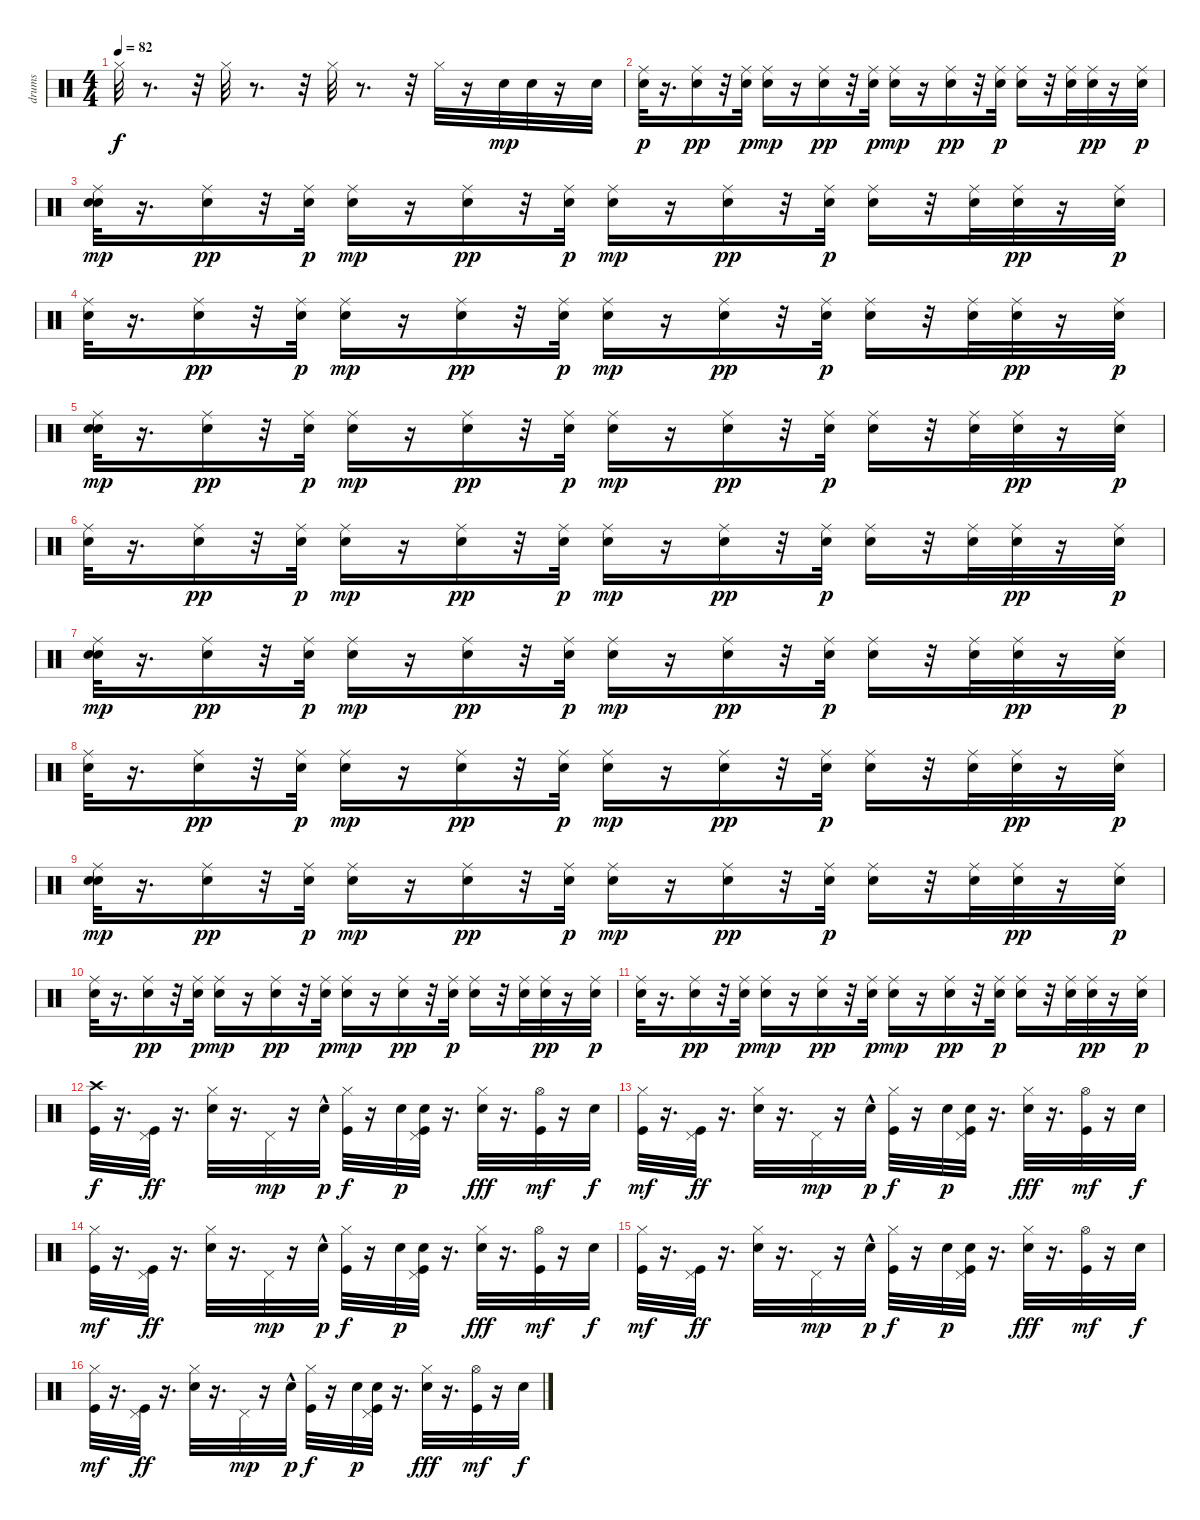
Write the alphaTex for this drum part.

\track ("drums" "drums") {instrument percussion}
\staff {score}
\articulation defaults
\ts (4 4)
\tempo 82
\clef neutral
\ks c "Hi-Hat (closed)".32{dy f}
r.8{d} r.32 "Hi-Hat (closed)".32 r.8{d} r.32 "Hi-Hat (closed)".32 r.8{d} r.32 "Hi-Hat (closed)".32 r.16 "Electric Snare (hit)".32{dy mp} "Electric Snare (hit)".32 r.16 "Electric Snare (hit)".32 |
("Ride (middle)" "Electric Snare (hit)").32{dy p} r.16{d} ("Ride (middle)" "Electric Snare (hit)").16{dy pp} r.32 ("Ride (middle)" "Electric Snare (hit)").32{dy p} ("Ride (middle)" "Electric Snare (hit)").16{dy mp} r.16 ("Ride (middle)" "Electric Snare (hit)").16{dy pp} r.32 ("Ride (middle)" "Electric Snare (hit)").32{dy p} ("Ride (middle)" "Electric Snare (hit)").16{dy mp} r.16 ("Ride (middle)" "Electric Snare (hit)").16{dy pp} r.32 ("Ride (middle)" "Electric Snare (hit)").32{dy p} ("Ride (middle)" "Electric Snare (hit)").16 r.32 ("Ride (middle)" "Electric Snare (hit)").32 ("Ride (middle)" "Electric Snare (hit)").32{dy pp} r.16 ("Ride (middle)" "Electric Snare (hit)").32{dy p} |
("Ride (middle)" "Electric Snare (hit)" "Electric Snare (hit)").32{dy mp} r.16{d} ("Ride (middle)" "Electric Snare (hit)").16{dy pp} r.32 ("Ride (middle)" "Electric Snare (hit)").32{dy p} ("Ride (middle)" "Electric Snare (hit)").16{dy mp} r.16 ("Ride (middle)" "Electric Snare (hit)").16{dy pp} r.32 ("Ride (middle)" "Electric Snare (hit)").32{dy p} ("Ride (middle)" "Electric Snare (hit)").16{dy mp} r.16 ("Ride (middle)" "Electric Snare (hit)").16{dy pp} r.32 ("Ride (middle)" "Electric Snare (hit)").32{dy p} ("Ride (middle)" "Electric Snare (hit)").16 r.32 ("Ride (middle)" "Electric Snare (hit)").32 ("Ride (middle)" "Electric Snare (hit)").32{dy pp} r.16 ("Ride (middle)" "Electric Snare (hit)").32{dy p} |
("Ride (middle)" "Electric Snare (hit)").32 r.16{d} ("Ride (middle)" "Electric Snare (hit)").16{dy pp} r.32 ("Ride (middle)" "Electric Snare (hit)").32{dy p} ("Ride (middle)" "Electric Snare (hit)").16{dy mp} r.16 ("Ride (middle)" "Electric Snare (hit)").16{dy pp} r.32 ("Ride (middle)" "Electric Snare (hit)").32{dy p} ("Ride (middle)" "Electric Snare (hit)").16{dy mp} r.16 ("Ride (middle)" "Electric Snare (hit)").16{dy pp} r.32 ("Ride (middle)" "Electric Snare (hit)").32{dy p} ("Ride (middle)" "Electric Snare (hit)").16 r.32 ("Ride (middle)" "Electric Snare (hit)").32 ("Ride (middle)" "Electric Snare (hit)").32{dy pp} r.16 ("Ride (middle)" "Electric Snare (hit)").32{dy p} |
("Ride (middle)" "Electric Snare (hit)" "Electric Snare (hit)").32{dy mp} r.16{d} ("Ride (middle)" "Electric Snare (hit)").16{dy pp} r.32 ("Ride (middle)" "Electric Snare (hit)").32{dy p} ("Ride (middle)" "Electric Snare (hit)").16{dy mp} r.16 ("Ride (middle)" "Electric Snare (hit)").16{dy pp} r.32 ("Ride (middle)" "Electric Snare (hit)").32{dy p} ("Ride (middle)" "Electric Snare (hit)").16{dy mp} r.16 ("Ride (middle)" "Electric Snare (hit)").16{dy pp} r.32 ("Ride (middle)" "Electric Snare (hit)").32{dy p} ("Ride (middle)" "Electric Snare (hit)").16 r.32 ("Ride (middle)" "Electric Snare (hit)").32 ("Ride (middle)" "Electric Snare (hit)").32{dy pp} r.16 ("Ride (middle)" "Electric Snare (hit)").32{dy p} |
("Ride (middle)" "Electric Snare (hit)").32 r.16{d} ("Ride (middle)" "Electric Snare (hit)").16{dy pp} r.32 ("Ride (middle)" "Electric Snare (hit)").32{dy p} ("Ride (middle)" "Electric Snare (hit)").16{dy mp} r.16 ("Ride (middle)" "Electric Snare (hit)").16{dy pp} r.32 ("Ride (middle)" "Electric Snare (hit)").32{dy p} ("Ride (middle)" "Electric Snare (hit)").16{dy mp} r.16 ("Ride (middle)" "Electric Snare (hit)").16{dy pp} r.32 ("Ride (middle)" "Electric Snare (hit)").32{dy p} ("Ride (middle)" "Electric Snare (hit)").16 r.32 ("Ride (middle)" "Electric Snare (hit)").32 ("Ride (middle)" "Electric Snare (hit)").32{dy pp} r.16 ("Ride (middle)" "Electric Snare (hit)").32{dy p} |
("Ride (middle)" "Electric Snare (hit)" "Electric Snare (hit)").32{dy mp} r.16{d} ("Ride (middle)" "Electric Snare (hit)").16{dy pp} r.32 ("Ride (middle)" "Electric Snare (hit)").32{dy p} ("Ride (middle)" "Electric Snare (hit)").16{dy mp} r.16 ("Ride (middle)" "Electric Snare (hit)").16{dy pp} r.32 ("Ride (middle)" "Electric Snare (hit)").32{dy p} ("Ride (middle)" "Electric Snare (hit)").16{dy mp} r.16 ("Ride (middle)" "Electric Snare (hit)").16{dy pp} r.32 ("Ride (middle)" "Electric Snare (hit)").32{dy p} ("Ride (middle)" "Electric Snare (hit)").16 r.32 ("Ride (middle)" "Electric Snare (hit)").32 ("Ride (middle)" "Electric Snare (hit)").32{dy pp} r.16 ("Ride (middle)" "Electric Snare (hit)").32{dy p} |
("Ride (middle)" "Electric Snare (hit)").32 r.16{d} ("Ride (middle)" "Electric Snare (hit)").16{dy pp} r.32 ("Ride (middle)" "Electric Snare (hit)").32{dy p} ("Ride (middle)" "Electric Snare (hit)").16{dy mp} r.16 ("Ride (middle)" "Electric Snare (hit)").16{dy pp} r.32 ("Ride (middle)" "Electric Snare (hit)").32{dy p} ("Ride (middle)" "Electric Snare (hit)").16{dy mp} r.16 ("Ride (middle)" "Electric Snare (hit)").16{dy pp} r.32 ("Ride (middle)" "Electric Snare (hit)").32{dy p} ("Ride (middle)" "Electric Snare (hit)").16 r.32 ("Ride (middle)" "Electric Snare (hit)").32 ("Ride (middle)" "Electric Snare (hit)").32{dy pp} r.16 ("Ride (middle)" "Electric Snare (hit)").32{dy p} |
("Ride (middle)" "Electric Snare (hit)" "Electric Snare (hit)").32{dy mp} r.16{d} ("Ride (middle)" "Electric Snare (hit)").16{dy pp} r.32 ("Ride (middle)" "Electric Snare (hit)").32{dy p} ("Ride (middle)" "Electric Snare (hit)").16{dy mp} r.16 ("Ride (middle)" "Electric Snare (hit)").16{dy pp} r.32 ("Ride (middle)" "Electric Snare (hit)").32{dy p} ("Ride (middle)" "Electric Snare (hit)").16{dy mp} r.16 ("Ride (middle)" "Electric Snare (hit)").16{dy pp} r.32 ("Ride (middle)" "Electric Snare (hit)").32{dy p} ("Ride (middle)" "Electric Snare (hit)").16 r.32 ("Ride (middle)" "Electric Snare (hit)").32 ("Ride (middle)" "Electric Snare (hit)").32{dy pp} r.16 ("Ride (middle)" "Electric Snare (hit)").32{dy p} |
("Ride (middle)" "Electric Snare (hit)").32 r.16{d} ("Ride (middle)" "Electric Snare (hit)").16{dy pp} r.32 ("Ride (middle)" "Electric Snare (hit)").32{dy p} ("Ride (middle)" "Electric Snare (hit)").16{dy mp} r.16 ("Ride (middle)" "Electric Snare (hit)").16{dy pp} r.32 ("Ride (middle)" "Electric Snare (hit)").32{dy p} ("Ride (middle)" "Electric Snare (hit)").16{dy mp} r.16 ("Ride (middle)" "Electric Snare (hit)").16{dy pp} r.32 ("Ride (middle)" "Electric Snare (hit)").32{dy p} ("Ride (middle)" "Electric Snare (hit)").16 r.32 ("Ride (middle)" "Electric Snare (hit)").32 ("Ride (middle)" "Electric Snare (hit)").32{dy pp} r.16 ("Ride (middle)" "Electric Snare (hit)").32{dy p} |
("Ride (middle)" "Electric Snare (hit)").32 r.16{d} ("Ride (middle)" "Electric Snare (hit)").16{dy pp} r.32 ("Ride (middle)" "Electric Snare (hit)").32{dy p} ("Ride (middle)" "Electric Snare (hit)").16{dy mp} r.16 ("Ride (middle)" "Electric Snare (hit)").16{dy pp} r.32 ("Ride (middle)" "Electric Snare (hit)").32{dy p} ("Ride (middle)" "Electric Snare (hit)").16{dy mp} r.16 ("Ride (middle)" "Electric Snare (hit)").16{dy pp} r.32 ("Ride (middle)" "Electric Snare (hit)").32{dy p} ("Ride (middle)" "Electric Snare (hit)").16 r.32 ("Ride (middle)" "Electric Snare (hit)").32 ("Ride (middle)" "Electric Snare (hit)").32{dy pp} r.16 ("Ride (middle)" "Electric Snare (hit)").32{dy p} |
("Kick (hit)" "Crash high (hit)").32{dy f} r.16{d} ("Pedal Hi-Hat (hit)" "Kick (hit)").32{dy ff} r.16{d} ("Electric Snare (hit)" "Hi-Hat (closed)").32 r.16{d} "Pedal Hi-Hat (hit)".32{dy mp} r.16 "Electric Snare (hit)"{hac}.32{dy p} ("Hi-Hat (closed)" "Kick (hit)").32{dy f} r.16 "Electric Snare (hit)".32{dy p} ("Electric Snare (hit)" "Pedal Hi-Hat (hit)" "Kick (hit)").32 r.16{d} ("Electric Snare (hit)" "Hi-Hat (closed)").32{dy fff} r.16{d} ("Hi-Hat (open)" "Kick (hit)").32{dy mf} r.16 "Electric Snare (hit)".32{dy f} |
("Hi-Hat (closed)" "Kick (hit)").32{dy mf} r.16{d} ("Pedal Hi-Hat (hit)" "Kick (hit)").32{dy ff} r.16{d} ("Electric Snare (hit)" "Hi-Hat (closed)").32 r.16{d} "Pedal Hi-Hat (hit)".32{dy mp} r.16 "Electric Snare (hit)"{hac}.32{dy p} ("Hi-Hat (closed)" "Kick (hit)").32{dy f} r.16 "Electric Snare (hit)".32{dy p} ("Electric Snare (hit)" "Pedal Hi-Hat (hit)" "Kick (hit)").32 r.16{d} ("Electric Snare (hit)" "Hi-Hat (closed)").32{dy fff} r.16{d} ("Hi-Hat (open)" "Kick (hit)").32{dy mf} r.16 "Electric Snare (hit)".32{dy f} |
("Hi-Hat (closed)" "Kick (hit)").32{dy mf} r.16{d} ("Pedal Hi-Hat (hit)" "Kick (hit)").32{dy ff} r.16{d} ("Electric Snare (hit)" "Hi-Hat (closed)").32 r.16{d} "Pedal Hi-Hat (hit)".32{dy mp} r.16 "Electric Snare (hit)"{hac}.32{dy p} ("Hi-Hat (closed)" "Kick (hit)").32{dy f} r.16 "Electric Snare (hit)".32{dy p} ("Electric Snare (hit)" "Pedal Hi-Hat (hit)" "Kick (hit)").32 r.16{d} ("Electric Snare (hit)" "Hi-Hat (closed)").32{dy fff} r.16{d} ("Hi-Hat (open)" "Kick (hit)").32{dy mf} r.16 "Electric Snare (hit)".32{dy f} |
("Hi-Hat (closed)" "Kick (hit)").32{dy mf} r.16{d} ("Pedal Hi-Hat (hit)" "Kick (hit)").32{dy ff} r.16{d} ("Electric Snare (hit)" "Hi-Hat (closed)").32 r.16{d} "Pedal Hi-Hat (hit)".32{dy mp} r.16 "Electric Snare (hit)"{hac}.32{dy p} ("Hi-Hat (closed)" "Kick (hit)").32{dy f} r.16 "Electric Snare (hit)".32{dy p} ("Electric Snare (hit)" "Pedal Hi-Hat (hit)" "Kick (hit)").32 r.16{d} ("Electric Snare (hit)" "Hi-Hat (closed)").32{dy fff} r.16{d} ("Hi-Hat (open)" "Kick (hit)").32{dy mf} r.16 "Electric Snare (hit)".32{dy f} |
("Hi-Hat (closed)" "Kick (hit)").32{dy mf} r.16{d} ("Pedal Hi-Hat (hit)" "Kick (hit)").32{dy ff} r.16{d} ("Electric Snare (hit)" "Hi-Hat (closed)").32 r.16{d} "Pedal Hi-Hat (hit)".32{dy mp} r.16 "Electric Snare (hit)"{hac}.32{dy p} ("Hi-Hat (closed)" "Kick (hit)").32{dy f} r.16 "Electric Snare (hit)".32{dy p} ("Electric Snare (hit)" "Pedal Hi-Hat (hit)" "Kick (hit)").32 r.16{d} ("Electric Snare (hit)" "Hi-Hat (closed)").32{dy fff} r.16{d} ("Hi-Hat (open)" "Kick (hit)").32{dy mf} r.16 "Electric Snare (hit)".32{dy f}
